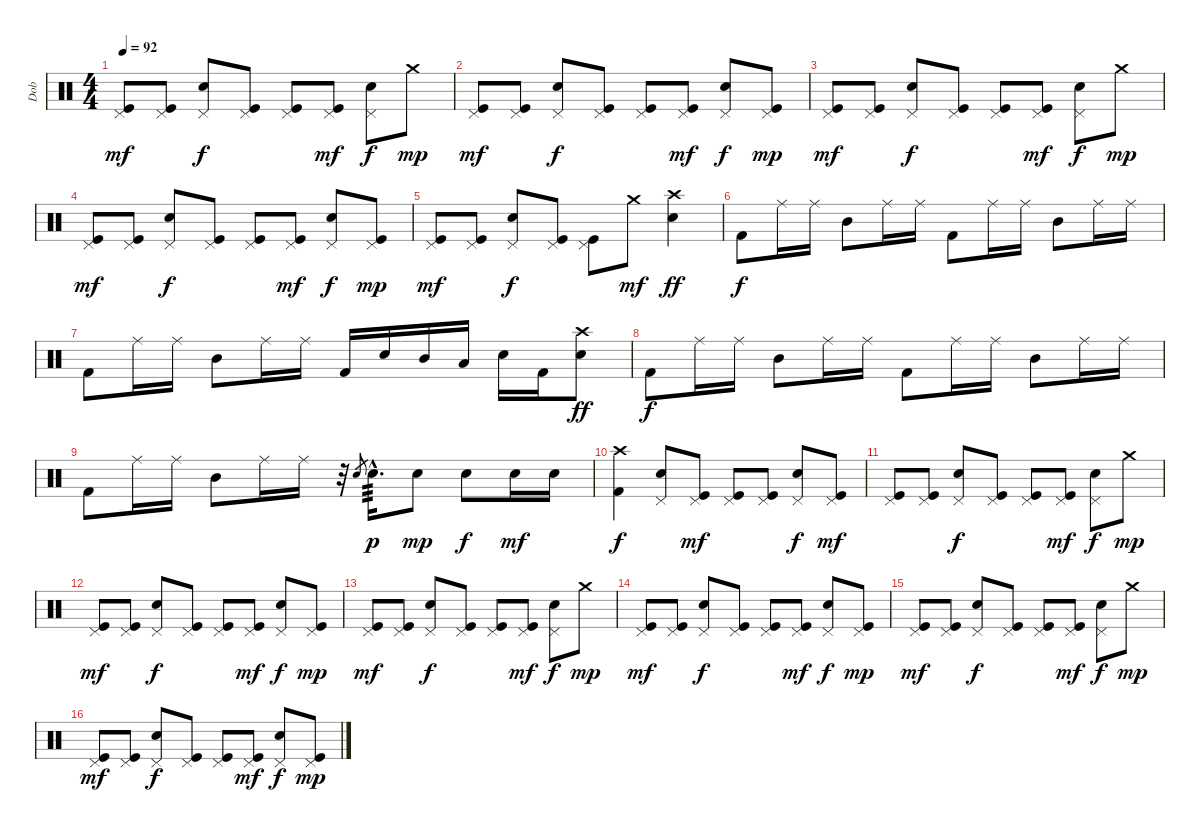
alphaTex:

\track ("Dob" "Dob") {instrument percussion}
\staff {score}
\articulation defaults
\ts (4 4)
\tempo 92
\clef neutral
\ks c
("Kick (hit)" "Pedal Hi-Hat (hit)").8{dy mf} ("Kick (hit)" "Pedal Hi-Hat (hit)").8 ("Electric Snare (hit)" "Pedal Hi-Hat (hit)").8{dy f} ("Kick (hit)" "Pedal Hi-Hat (hit)").8 ("Kick (hit)" "Pedal Hi-Hat (hit)").8 ("Kick (hit)" "Pedal Hi-Hat (hit)").8{dy mf} ("Electric Snare (hit)" "Pedal Hi-Hat (hit)").8{dy f} "Crash medium (hit)".8{dy mp} |
("Kick (hit)" "Pedal Hi-Hat (hit)").8{dy mf} ("Kick (hit)" "Pedal Hi-Hat (hit)").8 ("Electric Snare (hit)" "Pedal Hi-Hat (hit)").8{dy f} ("Kick (hit)" "Pedal Hi-Hat (hit)").8 ("Kick (hit)" "Pedal Hi-Hat (hit)").8 ("Kick (hit)" "Pedal Hi-Hat (hit)").8{dy mf} ("Electric Snare (hit)" "Pedal Hi-Hat (hit)").8{dy f} ("Kick (hit)" "Pedal Hi-Hat (hit)").8{dy mp} |
("Kick (hit)" "Pedal Hi-Hat (hit)").8{dy mf} ("Kick (hit)" "Pedal Hi-Hat (hit)").8 ("Electric Snare (hit)" "Pedal Hi-Hat (hit)").8{dy f} ("Kick (hit)" "Pedal Hi-Hat (hit)").8 ("Kick (hit)" "Pedal Hi-Hat (hit)").8 ("Kick (hit)" "Pedal Hi-Hat (hit)").8{dy mf} ("Electric Snare (hit)" "Pedal Hi-Hat (hit)").8{dy f} "Crash medium (hit)".8{dy mp} |
("Kick (hit)" "Pedal Hi-Hat (hit)").8{dy mf} ("Kick (hit)" "Pedal Hi-Hat (hit)").8 ("Electric Snare (hit)" "Pedal Hi-Hat (hit)").8{dy f} ("Kick (hit)" "Pedal Hi-Hat (hit)").8 ("Kick (hit)" "Pedal Hi-Hat (hit)").8 ("Kick (hit)" "Pedal Hi-Hat (hit)").8{dy mf} ("Electric Snare (hit)" "Pedal Hi-Hat (hit)").8{dy f} ("Kick (hit)" "Pedal Hi-Hat (hit)").8{dy mp} |
("Kick (hit)" "Pedal Hi-Hat (hit)").8{dy mf} ("Kick (hit)" "Pedal Hi-Hat (hit)").8 ("Electric Snare (hit)" "Pedal Hi-Hat (hit)").8{dy f} ("Kick (hit)" "Pedal Hi-Hat (hit)").8 ("Kick (hit)" "Pedal Hi-Hat (hit)").8 "Crash medium (hit)".8{dy mf} ("Electric Snare (hit)" "Crash high (hit)").4{dy ff} |
"Kick (hit) 2".8{dy f} "Ride (middle)".16 "Ride (middle)".16 "Mid Tom (hit)".8 "Ride (middle)".16 "Ride (middle)".16 "Kick (hit) 2".8 "Ride (middle)".16 "Ride (middle)".16 "Mid Tom (hit)".8 "Ride (middle)".16 "Ride (middle)".16 |
"Kick (hit) 2".8 "Ride (middle)".16 "Ride (middle)".16 "Mid Tom (hit)".8 "Ride (middle)".16 "Ride (middle)".16 "Kick (hit) 2".16 "Electric Snare (hit)".16 "Mid Tom (hit)".16 "Low Tom (hit)".16 "Electric Snare (hit)".16 "Kick (hit) 2".16 ("Electric Snare (hit)" "Crash high (hit)").8{dy ff} |
"Kick (hit) 2".8{dy f} "Ride (middle)".16 "Ride (middle)".16 "Mid Tom (hit)".8 "Ride (middle)".16 "Ride (middle)".16 "Kick (hit) 2".8 "Ride (middle)".16 "Ride (middle)".16 "Mid Tom (hit)".8 "Ride (middle)".16 "Ride (middle)".16 |
"Kick (hit) 2".8 "Ride (middle)".16 "Ride (middle)".16 "Mid Tom (hit)".8 "Ride (middle)".16 "Ride (middle)".16 r.32 "Electric Snare (hit)".8{gr} "Electric Snare (hit)"{hac}.16{d tp 3 dy p} "Electric Snare (hit)".8{dy mp} "Electric Snare (hit)".8{dy f} "Electric Snare (hit)".16{dy mf} "Electric Snare (hit)".16 |
("Kick (hit) 2" "Crash high (hit)").4{dy f} ("Electric Snare (hit)" "Pedal Hi-Hat (hit)").8 ("Kick (hit)" "Pedal Hi-Hat (hit)").8{dy mf} ("Kick (hit)" "Pedal Hi-Hat (hit)").8 ("Kick (hit)" "Pedal Hi-Hat (hit)").8 ("Electric Snare (hit)" "Pedal Hi-Hat (hit)").8{dy f} ("Kick (hit)" "Pedal Hi-Hat (hit)").8{dy mf} |
("Kick (hit)" "Pedal Hi-Hat (hit)").8 ("Kick (hit)" "Pedal Hi-Hat (hit)").8 ("Electric Snare (hit)" "Pedal Hi-Hat (hit)").8{dy f} ("Kick (hit)" "Pedal Hi-Hat (hit)").8 ("Kick (hit)" "Pedal Hi-Hat (hit)").8 ("Kick (hit)" "Pedal Hi-Hat (hit)").8{dy mf} ("Electric Snare (hit)" "Pedal Hi-Hat (hit)").8{dy f} "Crash medium (hit)".8{dy mp} |
("Kick (hit)" "Pedal Hi-Hat (hit)").8{dy mf} ("Kick (hit)" "Pedal Hi-Hat (hit)").8 ("Electric Snare (hit)" "Pedal Hi-Hat (hit)").8{dy f} ("Kick (hit)" "Pedal Hi-Hat (hit)").8 ("Kick (hit)" "Pedal Hi-Hat (hit)").8 ("Kick (hit)" "Pedal Hi-Hat (hit)").8{dy mf} ("Electric Snare (hit)" "Pedal Hi-Hat (hit)").8{dy f} ("Kick (hit)" "Pedal Hi-Hat (hit)").8{dy mp} |
("Kick (hit)" "Pedal Hi-Hat (hit)").8{dy mf} ("Kick (hit)" "Pedal Hi-Hat (hit)").8 ("Electric Snare (hit)" "Pedal Hi-Hat (hit)").8{dy f} ("Kick (hit)" "Pedal Hi-Hat (hit)").8 ("Kick (hit)" "Pedal Hi-Hat (hit)").8 ("Kick (hit)" "Pedal Hi-Hat (hit)").8{dy mf} ("Electric Snare (hit)" "Pedal Hi-Hat (hit)").8{dy f} "Crash medium (hit)".8{dy mp} |
("Kick (hit)" "Pedal Hi-Hat (hit)").8{dy mf} ("Kick (hit)" "Pedal Hi-Hat (hit)").8 ("Electric Snare (hit)" "Pedal Hi-Hat (hit)").8{dy f} ("Kick (hit)" "Pedal Hi-Hat (hit)").8 ("Kick (hit)" "Pedal Hi-Hat (hit)").8 ("Kick (hit)" "Pedal Hi-Hat (hit)").8{dy mf} ("Electric Snare (hit)" "Pedal Hi-Hat (hit)").8{dy f} ("Kick (hit)" "Pedal Hi-Hat (hit)").8{dy mp} |
("Kick (hit)" "Pedal Hi-Hat (hit)").8{dy mf} ("Kick (hit)" "Pedal Hi-Hat (hit)").8 ("Electric Snare (hit)" "Pedal Hi-Hat (hit)").8{dy f} ("Kick (hit)" "Pedal Hi-Hat (hit)").8 ("Kick (hit)" "Pedal Hi-Hat (hit)").8 ("Kick (hit)" "Pedal Hi-Hat (hit)").8{dy mf} ("Electric Snare (hit)" "Pedal Hi-Hat (hit)").8{dy f} "Crash medium (hit)".8{dy mp} |
("Kick (hit)" "Pedal Hi-Hat (hit)").8{dy mf} ("Kick (hit)" "Pedal Hi-Hat (hit)").8 ("Electric Snare (hit)" "Pedal Hi-Hat (hit)").8{dy f} ("Kick (hit)" "Pedal Hi-Hat (hit)").8 ("Kick (hit)" "Pedal Hi-Hat (hit)").8 ("Kick (hit)" "Pedal Hi-Hat (hit)").8{dy mf} ("Electric Snare (hit)" "Pedal Hi-Hat (hit)").8{dy f} ("Kick (hit)" "Pedal Hi-Hat (hit)").8{dy mp}
